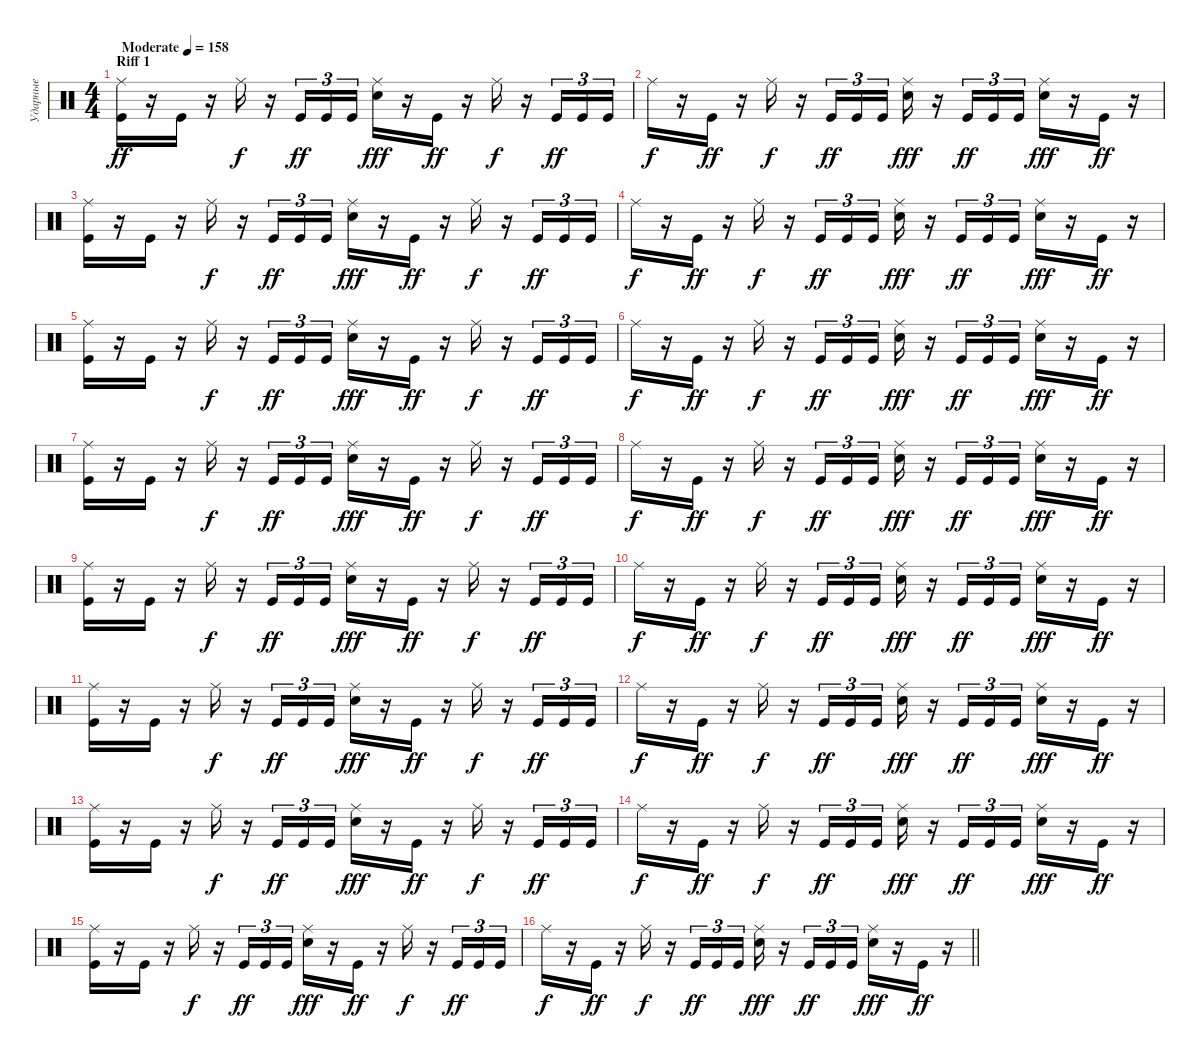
\track ("Ударные" "Ударные") {instrument percussion}
\staff {score}
\articulation defaults
\ts (4 4)
\section ("" "Riff 1")
\tempo (158 "Moderate")
\clef neutral
\ks c
("Ride (middle)" "Kick (hit)").16{dy ff} r.16 "Kick (hit)".16 r.16 "Ride (middle)".16{dy f} r.16 "Kick (hit)".16{tu (3 2) dy ff} "Kick (hit)".16{tu (3 2)} "Kick (hit)".16{tu (3 2)} ("Ride (middle)" "Snare (hit) 2").16{dy fff} r.16 "Kick (hit)".16{dy ff} r.16 "Ride (middle)".16{dy f} r.16 "Kick (hit)".16{tu (3 2) dy ff} "Kick (hit)".16{tu (3 2)} "Kick (hit)".16{tu (3 2)} |
"Ride (middle)".16{dy f} r.16 "Kick (hit)".16{dy ff} r.16 "Ride (middle)".16{dy f} r.16 "Kick (hit)".16{tu (3 2) dy ff} "Kick (hit)".16{tu (3 2)} "Kick (hit)".16{tu (3 2)} ("Ride (middle)" "Snare (hit) 2").16{dy fff} r.16 "Kick (hit)".16{tu (3 2) dy ff} "Kick (hit)".16{tu (3 2)} "Kick (hit)".16{tu (3 2)} ("Ride (middle)" "Snare (hit) 2").16{dy fff} r.16 "Kick (hit)".16{dy ff} r.16 |
("Ride (middle)" "Kick (hit)").16 r.16 "Kick (hit)".16 r.16 "Ride (middle)".16{dy f} r.16 "Kick (hit)".16{tu (3 2) dy ff} "Kick (hit)".16{tu (3 2)} "Kick (hit)".16{tu (3 2)} ("Ride (middle)" "Snare (hit) 2").16{dy fff} r.16 "Kick (hit)".16{dy ff} r.16 "Ride (middle)".16{dy f} r.16 "Kick (hit)".16{tu (3 2) dy ff} "Kick (hit)".16{tu (3 2)} "Kick (hit)".16{tu (3 2)} |
"Ride (middle)".16{dy f} r.16 "Kick (hit)".16{dy ff} r.16 "Ride (middle)".16{dy f} r.16 "Kick (hit)".16{tu (3 2) dy ff} "Kick (hit)".16{tu (3 2)} "Kick (hit)".16{tu (3 2)} ("Ride (middle)" "Snare (hit) 2").16{dy fff} r.16 "Kick (hit)".16{tu (3 2) dy ff} "Kick (hit)".16{tu (3 2)} "Kick (hit)".16{tu (3 2)} ("Ride (middle)" "Snare (hit) 2").16{dy fff} r.16 "Kick (hit)".16{dy ff} r.16 |
("Ride (middle)" "Kick (hit)").16 r.16 "Kick (hit)".16 r.16 "Ride (middle)".16{dy f} r.16 "Kick (hit)".16{tu (3 2) dy ff} "Kick (hit)".16{tu (3 2)} "Kick (hit)".16{tu (3 2)} ("Ride (middle)" "Snare (hit) 2").16{dy fff} r.16 "Kick (hit)".16{dy ff} r.16 "Ride (middle)".16{dy f} r.16 "Kick (hit)".16{tu (3 2) dy ff} "Kick (hit)".16{tu (3 2)} "Kick (hit)".16{tu (3 2)} |
"Ride (middle)".16{dy f} r.16 "Kick (hit)".16{dy ff} r.16 "Ride (middle)".16{dy f} r.16 "Kick (hit)".16{tu (3 2) dy ff} "Kick (hit)".16{tu (3 2)} "Kick (hit)".16{tu (3 2)} ("Ride (middle)" "Snare (hit) 2").16{dy fff} r.16 "Kick (hit)".16{tu (3 2) dy ff} "Kick (hit)".16{tu (3 2)} "Kick (hit)".16{tu (3 2)} ("Ride (middle)" "Snare (hit) 2").16{dy fff} r.16 "Kick (hit)".16{dy ff} r.16 |
("Ride (middle)" "Kick (hit)").16 r.16 "Kick (hit)".16 r.16 "Ride (middle)".16{dy f} r.16 "Kick (hit)".16{tu (3 2) dy ff} "Kick (hit)".16{tu (3 2)} "Kick (hit)".16{tu (3 2)} ("Ride (middle)" "Snare (hit) 2").16{dy fff} r.16 "Kick (hit)".16{dy ff} r.16 "Ride (middle)".16{dy f} r.16 "Kick (hit)".16{tu (3 2) dy ff} "Kick (hit)".16{tu (3 2)} "Kick (hit)".16{tu (3 2)} |
"Ride (middle)".16{dy f} r.16 "Kick (hit)".16{dy ff} r.16 "Ride (middle)".16{dy f} r.16 "Kick (hit)".16{tu (3 2) dy ff} "Kick (hit)".16{tu (3 2)} "Kick (hit)".16{tu (3 2)} ("Ride (middle)" "Snare (hit) 2").16{dy fff} r.16 "Kick (hit)".16{tu (3 2) dy ff} "Kick (hit)".16{tu (3 2)} "Kick (hit)".16{tu (3 2)} ("Ride (middle)" "Snare (hit) 2").16{dy fff} r.16 "Kick (hit)".16{dy ff} r.16 |
("Ride (middle)" "Kick (hit)").16 r.16 "Kick (hit)".16 r.16 "Ride (middle)".16{dy f} r.16 "Kick (hit)".16{tu (3 2) dy ff} "Kick (hit)".16{tu (3 2)} "Kick (hit)".16{tu (3 2)} ("Ride (middle)" "Snare (hit) 2").16{dy fff} r.16 "Kick (hit)".16{dy ff} r.16 "Ride (middle)".16{dy f} r.16 "Kick (hit)".16{tu (3 2) dy ff} "Kick (hit)".16{tu (3 2)} "Kick (hit)".16{tu (3 2)} |
"Ride (middle)".16{dy f} r.16 "Kick (hit)".16{dy ff} r.16 "Ride (middle)".16{dy f} r.16 "Kick (hit)".16{tu (3 2) dy ff} "Kick (hit)".16{tu (3 2)} "Kick (hit)".16{tu (3 2)} ("Ride (middle)" "Snare (hit) 2").16{dy fff} r.16 "Kick (hit)".16{tu (3 2) dy ff} "Kick (hit)".16{tu (3 2)} "Kick (hit)".16{tu (3 2)} ("Ride (middle)" "Snare (hit) 2").16{dy fff} r.16 "Kick (hit)".16{dy ff} r.16 |
("Ride (middle)" "Kick (hit)").16 r.16 "Kick (hit)".16 r.16 "Ride (middle)".16{dy f} r.16 "Kick (hit)".16{tu (3 2) dy ff} "Kick (hit)".16{tu (3 2)} "Kick (hit)".16{tu (3 2)} ("Ride (middle)" "Snare (hit) 2").16{dy fff} r.16 "Kick (hit)".16{dy ff} r.16 "Ride (middle)".16{dy f} r.16 "Kick (hit)".16{tu (3 2) dy ff} "Kick (hit)".16{tu (3 2)} "Kick (hit)".16{tu (3 2)} |
"Ride (middle)".16{dy f} r.16 "Kick (hit)".16{dy ff} r.16 "Ride (middle)".16{dy f} r.16 "Kick (hit)".16{tu (3 2) dy ff} "Kick (hit)".16{tu (3 2)} "Kick (hit)".16{tu (3 2)} ("Ride (middle)" "Snare (hit) 2").16{dy fff} r.16 "Kick (hit)".16{tu (3 2) dy ff} "Kick (hit)".16{tu (3 2)} "Kick (hit)".16{tu (3 2)} ("Ride (middle)" "Snare (hit) 2").16{dy fff} r.16 "Kick (hit)".16{dy ff} r.16 |
("Ride (middle)" "Kick (hit)").16 r.16 "Kick (hit)".16 r.16 "Ride (middle)".16{dy f} r.16 "Kick (hit)".16{tu (3 2) dy ff} "Kick (hit)".16{tu (3 2)} "Kick (hit)".16{tu (3 2)} ("Ride (middle)" "Snare (hit) 2").16{dy fff} r.16 "Kick (hit)".16{dy ff} r.16 "Ride (middle)".16{dy f} r.16 "Kick (hit)".16{tu (3 2) dy ff} "Kick (hit)".16{tu (3 2)} "Kick (hit)".16{tu (3 2)} |
"Ride (middle)".16{dy f} r.16 "Kick (hit)".16{dy ff} r.16 "Ride (middle)".16{dy f} r.16 "Kick (hit)".16{tu (3 2) dy ff} "Kick (hit)".16{tu (3 2)} "Kick (hit)".16{tu (3 2)} ("Ride (middle)" "Snare (hit) 2").16{dy fff} r.16 "Kick (hit)".16{tu (3 2) dy ff} "Kick (hit)".16{tu (3 2)} "Kick (hit)".16{tu (3 2)} ("Ride (middle)" "Snare (hit) 2").16{dy fff} r.16 "Kick (hit)".16{dy ff} r.16 |
("Ride (middle)" "Kick (hit)").16 r.16 "Kick (hit)".16 r.16 "Ride (middle)".16{dy f} r.16 "Kick (hit)".16{tu (3 2) dy ff} "Kick (hit)".16{tu (3 2)} "Kick (hit)".16{tu (3 2)} ("Ride (middle)" "Snare (hit) 2").16{dy fff} r.16 "Kick (hit)".16{dy ff} r.16 "Ride (middle)".16{dy f} r.16 "Kick (hit)".16{tu (3 2) dy ff} "Kick (hit)".16{tu (3 2)} "Kick (hit)".16{tu (3 2)} |
\barLineRight lightlight "Ride (middle)".16{dy f}
r.16 "Kick (hit)".16{dy ff} r.16 "Ride (middle)".16{dy f} r.16 "Kick (hit)".16{tu (3 2) dy ff} "Kick (hit)".16{tu (3 2)} "Kick (hit)".16{tu (3 2)} ("Ride (middle)" "Snare (hit) 2").16{dy fff} r.16 "Kick (hit)".16{tu (3 2) dy ff} "Kick (hit)".16{tu (3 2)} "Kick (hit)".16{tu (3 2)} ("Ride (middle)" "Snare (hit) 2").16{dy fff} r.16 "Kick (hit)".16{dy ff} r.16
